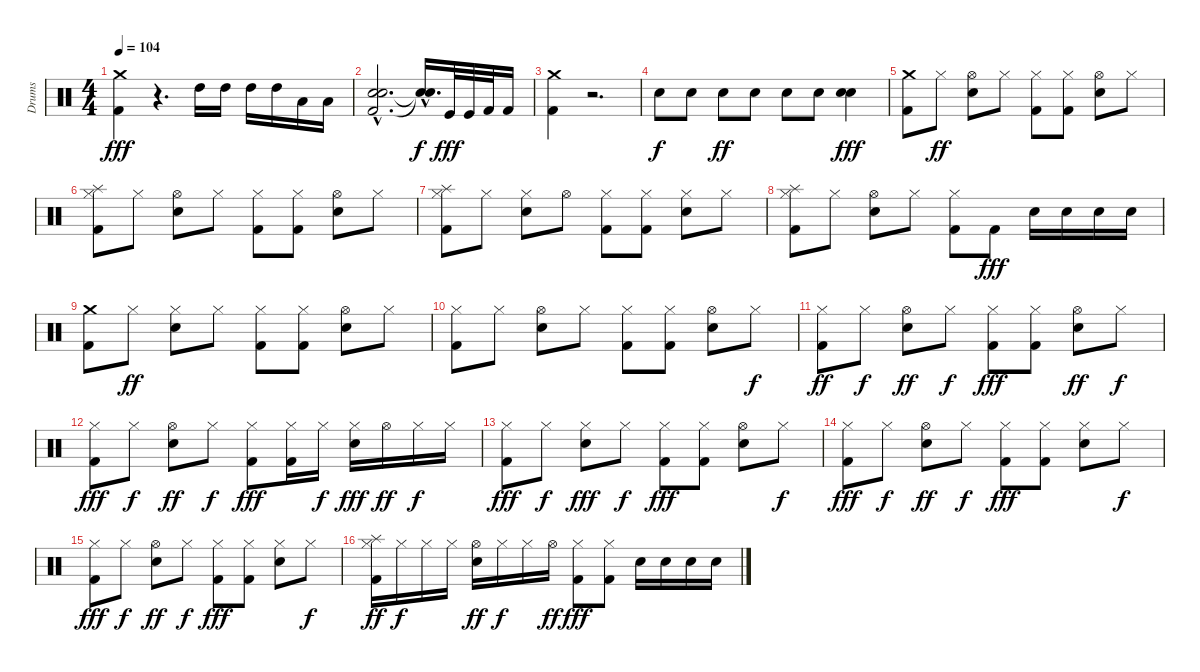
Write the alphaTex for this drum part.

\track ("Drums" "Drums") {instrument percussion}
\staff {score}
\articulation defaults
\ts (4 4)
\tempo 104
\clef neutral
\ks c
("Crash medium (hit)" "Kick (hit) 2").4{dy fff} r.4{d} "High Tom (hit)".16 "High Tom (hit)".16 "High Tom (hit)".16 "High Tom (hit)".16 "Low Tom (hit)".16 "Low Tom (hit)".16 |
("Electric Snare (hit)"{hac} "Kick (hit) 2" "Electric Snare (hit)"{hac}).2{d} ("Snare (hit)"{hac t} "Snare (hit)"{hac t}).16{d dy f} "Kick (hit)".32{dy fff} "Kick (hit)".32 "Kick (hit) 2".32 "Kick (hit) 2".16 |
("Crash medium (hit)" "Kick (hit) 2").4 r.2{d} |
"Electric Snare (hit)".8{dy f} "Electric Snare (hit)".8 "Electric Snare (hit)".8{dy ff} "Electric Snare (hit)".8 "Electric Snare (hit)".8 "Electric Snare (hit)".8 ("Electric Snare (hit)" "Electric Snare (hit)").4{dy fff} |
("Kick (hit) 2" "Crash medium (hit)").8 "Hi-Hat (closed)".8{dy ff} ("Electric Snare (hit)" "Hi-Hat (open)").8 "Hi-Hat (closed)".8 ("Kick (hit) 2" "Hi-Hat (closed)").8 ("Kick (hit) 2" "Hi-Hat (closed)").8 ("Electric Snare (hit)" "Hi-Hat (open)").8 "Hi-Hat (closed)".8 |
("Splash (hit)" "Kick (hit) 2" "Hi-Hat (closed)").8 "Hi-Hat (closed)".8 ("Electric Snare (hit)" "Hi-Hat (open)").8 "Hi-Hat (closed)".8 ("Kick (hit) 2" "Hi-Hat (closed)").8 ("Kick (hit) 2" "Hi-Hat (closed)").8 ("Electric Snare (hit)" "Hi-Hat (open)").8 "Hi-Hat (closed)".8 |
("Splash (hit)" "Kick (hit) 2" "Hi-Hat (closed)").8 "Hi-Hat (closed)".8 ("Electric Snare (hit)" "Hi-Hat (closed)").8 "Hi-Hat (open)".8 ("Kick (hit) 2" "Hi-Hat (closed)").8 ("Kick (hit) 2" "Hi-Hat (closed)").8 ("Electric Snare (hit)" "Hi-Hat (closed)").8 "Hi-Hat (closed)".8 |
("Splash (hit)" "Kick (hit) 2" "Hi-Hat (closed)").8 "Hi-Hat (closed)".8 ("Electric Snare (hit)" "Hi-Hat (open)").8 "Hi-Hat (closed)".8 ("Kick (hit) 2" "Hi-Hat (closed)").8 "Kick (hit) 2".8{dy fff} "Electric Snare (hit)".16 "Electric Snare (hit)".16 "Electric Snare (hit)".16 "Electric Snare (hit)".16 |
("Crash medium (hit)" "Kick (hit) 2").8 "Hi-Hat (closed)".8{dy ff} ("Electric Snare (hit)" "Hi-Hat (closed)").8 "Hi-Hat (closed)".8 ("Kick (hit) 2" "Hi-Hat (closed)").8 ("Kick (hit) 2" "Hi-Hat (closed)").8 ("Electric Snare (hit)" "Hi-Hat (open)").8 "Hi-Hat (closed)".8 |
("Kick (hit) 2" "Hi-Hat (closed)").8 "Hi-Hat (closed)".8 ("Electric Snare (hit)" "Hi-Hat (open)").8 "Hi-Hat (closed)".8 ("Kick (hit) 2" "Hi-Hat (closed)").8 ("Kick (hit) 2" "Hi-Hat (closed)").8 ("Electric Snare (hit)" "Hi-Hat (open)").8 "Hi-Hat (closed)".8{dy f} |
("Kick (hit) 2" "Hi-Hat (closed)").8{dy ff} "Hi-Hat (closed)".8{dy f} ("Electric Snare (hit)" "Hi-Hat (open)").8{dy ff} "Hi-Hat (closed)".8{dy f} ("Kick (hit) 2" "Hi-Hat (closed)").8{dy fff} ("Kick (hit) 2" "Hi-Hat (closed)").8 ("Electric Snare (hit)" "Hi-Hat (open)").8{dy ff} "Hi-Hat (closed)".8{dy f} |
("Kick (hit) 2" "Hi-Hat (closed)").8{dy fff} "Hi-Hat (closed)".8{dy f} ("Electric Snare (hit)" "Hi-Hat (open)").8{dy ff} "Hi-Hat (closed)".8{dy f} ("Kick (hit) 2" "Hi-Hat (closed)").8{dy fff} ("Kick (hit) 2" "Hi-Hat (closed)").16 "Hi-Hat (closed)".16{dy f} ("Electric Snare (hit)" "Hi-Hat (closed)").16{dy fff} "Hi-Hat (open)".16{dy ff} "Hi-Hat (closed)".16{dy f} "Hi-Hat (closed)".16 |
("Kick (hit) 2" "Hi-Hat (closed)").8{dy fff} "Hi-Hat (closed)".8{dy f} ("Electric Snare (hit)" "Hi-Hat (closed)").8{dy fff} "Hi-Hat (closed)".8{dy f} ("Kick (hit) 2" "Hi-Hat (closed)").8{dy fff} ("Kick (hit) 2" "Hi-Hat (closed)").8 ("Electric Snare (hit)" "Hi-Hat (open)").8 "Hi-Hat (closed)".8{dy f} |
("Kick (hit) 2" "Hi-Hat (closed)").8{dy fff} "Hi-Hat (closed)".8{dy f} ("Electric Snare (hit)" "Hi-Hat (open)").8{dy ff} "Hi-Hat (closed)".8{dy f} ("Kick (hit) 2" "Hi-Hat (closed)").8{dy fff} ("Kick (hit) 2" "Hi-Hat (closed)").8 ("Electric Snare (hit)" "Hi-Hat (closed)").8 "Hi-Hat (closed)".8{dy f} |
("Kick (hit) 2" "Hi-Hat (closed)").8{dy fff} "Hi-Hat (closed)".8{dy f} ("Electric Snare (hit)" "Hi-Hat (open)").8{dy ff} "Hi-Hat (closed)".8{dy f} ("Kick (hit) 2" "Hi-Hat (closed)").8{dy fff} ("Kick (hit) 2" "Hi-Hat (closed)").8 ("Electric Snare (hit)" "Hi-Hat (closed)").8 "Hi-Hat (closed)".8{dy f} |
("Splash (hit)" "Kick (hit) 2" "Hi-Hat (closed)").16{dy ff} "Hi-Hat (closed)".16{dy f} "Hi-Hat (closed)".16 "Hi-Hat (closed)".16 ("Electric Snare (hit)" "Hi-Hat (open)").16{dy ff} "Hi-Hat (closed)".16{dy f} "Hi-Hat (closed)".16 "Hi-Hat (open)".16{dy ff} ("Kick (hit) 2" "Hi-Hat (closed)").8{dy fff} ("Kick (hit) 2" "Hi-Hat (closed)").8 "Electric Snare (hit)".16 "Electric Snare (hit)".16 "Electric Snare (hit)".16 "Electric Snare (hit)".16
